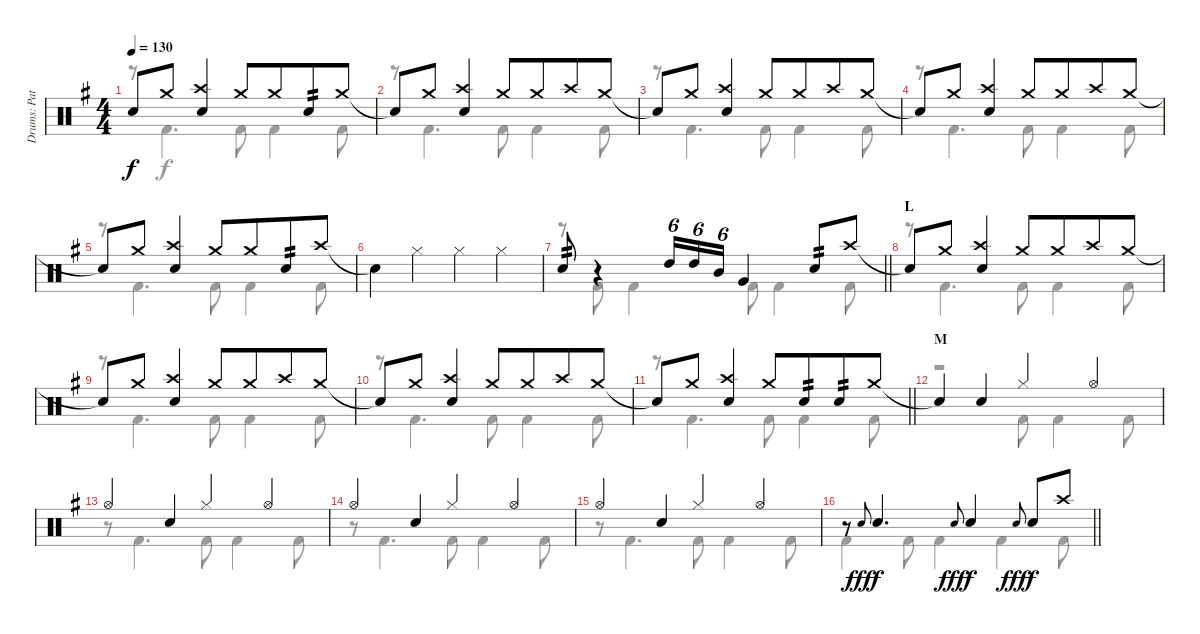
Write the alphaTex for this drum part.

\track ("Drums: Pat" "Drums: Pat") {instrument percussion}
\staff {score}
\articulation defaults
\voice
\ts (4 4)
\tempo 130
\clef neutral
\ks g "Snare (hit)"{t}.8{dy f} "Crash medium (hit)".8
("Crash high (hit)" "Snare (hit) 2").4 "Crash medium (hit)".8 "Crash medium (hit)".8{beam merge} "Snare (hit) 2".8{tp 2} "Crash medium (hit)".8 |
"Snare (hit)"{t}.8 "Crash medium (hit)".8 ("Crash high (hit)" "Snare (hit) 2").4 "Crash medium (hit)".8 "Crash medium (hit)".8{beam merge} "Crash high (hit)".8 "Crash medium (hit)".8 |
"Snare (hit)"{t}.8 "Crash medium (hit)".8 ("Crash high (hit)" "Snare (hit) 2").4 "Crash medium (hit)".8 "Crash medium (hit)".8{beam merge} "Crash high (hit)".8 "Crash medium (hit)".8 |
"Snare (hit)"{t}.8 "Crash medium (hit)".8 ("Crash high (hit)" "Snare (hit) 2").4 "Crash medium (hit)".8 "Crash medium (hit)".8{beam merge} "Crash high (hit)".8 "Crash medium (hit)".8 |
"Snare (hit)"{t}.8 "Crash medium (hit)".8 ("Crash high (hit)" "Snare (hit) 2").4 "Crash medium (hit)".8{beam merge} "Crash medium (hit)".8{beam merge} "Snare (hit) 2".8{tp 2} "Crash high (hit)".8 |
"Snare (hit)"{t}.4 "Hi-Hat (closed)".4 "Hi-Hat (closed)".4 "Hi-Hat (closed)".4 |
\barLineRight lightlight "Snare (hit) 2".8{tp 2}
r.4 "High Tom (hit)".16{tu (6 4)} "High Tom (hit)".16{tu (6 4)} "Mid Tom (hit)".16{tu (6 4)} "Very Low Tom (hit)".4 "Snare (hit) 2".8{tp 2} "Crash high (hit)".8 |
\section ("" "L")
"Snare (hit)"{t}.8 "Crash medium (hit)".8 ("Crash high (hit)" "Snare (hit) 2").4 "Crash medium (hit)".8 "Crash medium (hit)".8{beam merge} "Crash high (hit)".8 "Crash medium (hit)".8 |
"Snare (hit)"{t}.8 "Crash medium (hit)".8 ("Crash high (hit)" "Snare (hit) 2").4 "Crash medium (hit)".8 "Crash medium (hit)".8{beam merge} "Crash high (hit)".8 "Crash medium (hit)".8 |
"Snare (hit)"{t}.8 "Crash medium (hit)".8 ("Crash high (hit)" "Snare (hit) 2").4 "Crash medium (hit)".8 "Crash medium (hit)".8{beam merge} "Crash high (hit)".8 "Crash medium (hit)".8 |
\barLineRight lightlight "Snare (hit)"{t}.8 "Crash medium (hit)".8
("Crash high (hit)" "Snare (hit) 2").4 "Crash medium (hit)".8{beam merge} "Snare (hit) 2".8{tp 2 beam merge} "Snare (hit) 2".8{tp 2} "Crash medium (hit)".8 |
\section ("" "M")
"Snare (hit)"{t}.4 "Snare (hit) 2".4 "Hi-Hat (closed)".4 "Hi-Hat (open)".4 |
"Hi-Hat (open)".4 "Snare (hit) 2".4 "Hi-Hat (closed)".4 "Hi-Hat (open)".4 |
"Hi-Hat (open)".4 "Snare (hit) 2".4 "Hi-Hat (closed)".4 "Hi-Hat (open)".4 |
"Hi-Hat (open)".4 "Snare (hit) 2".4 "Hi-Hat (closed)".4 "Hi-Hat (open)".4 |
\barLineRight lightlight
r.8 "Electric Snare (hit)".8{gr onbeat dy fff} "Snare (hit) 2".4{d dy f} "Electric Snare (hit)".8{gr onbeat dy fff} "Snare (hit) 2".4{dy f} "Electric Snare (hit)".8{gr onbeat dy fff} "Snare (hit) 2".8{dy f} "Crash high (hit)".8
\voice
\clef neutral
\ottava regular
\simile none
\ks g
r.8{dy f} "Kick (hit) 2".4{d} "Kick (hit) 2".8 "Kick (hit) 2".4 "Kick (hit) 2".8 |
r.8 "Kick (hit) 2".4{d} "Kick (hit) 2".8 "Kick (hit) 2".4 "Kick (hit) 2".8 |
r.8 "Kick (hit) 2".4{d} "Kick (hit) 2".8 "Kick (hit) 2".4 "Kick (hit) 2".8 |
r.8 "Kick (hit) 2".4{d} "Kick (hit) 2".8 "Kick (hit) 2".4 "Kick (hit) 2".8 |
r.8 "Kick (hit) 2".4{d} "Kick (hit) 2".8 "Kick (hit) 2".4 "Kick (hit) 2".8 |
|
\barLineRight lightlight
r.8 "Kick (hit) 2".8 "Kick (hit) 2".4 "Kick (hit) 2".8 "Kick (hit) 2".4 "Kick (hit) 2".8 |
r.8 "Kick (hit) 2".4{d} "Kick (hit) 2".8 "Kick (hit) 2".4 "Kick (hit) 2".8 |
r.8 "Kick (hit) 2".4{d} "Kick (hit) 2".8 "Kick (hit) 2".4 "Kick (hit) 2".8 |
r.8 "Kick (hit) 2".4{d} "Kick (hit) 2".8 "Kick (hit) 2".4 "Kick (hit) 2".8 |
\barLineRight lightlight
r.8 "Kick (hit) 2".4{d} "Kick (hit) 2".8 "Kick (hit) 2".4 "Kick (hit) 2".8 |
r.2 "Kick (hit) 2".8 "Kick (hit) 2".4 "Kick (hit) 2".8 |
r.8 "Kick (hit) 2".4{d} "Kick (hit) 2".8 "Kick (hit) 2".4 "Kick (hit) 2".8 |
r.8 "Kick (hit) 2".4{d} "Kick (hit) 2".8 "Kick (hit) 2".4 "Kick (hit) 2".8 |
r.8 "Kick (hit) 2".4{d} "Kick (hit) 2".8 "Kick (hit) 2".4 "Kick (hit) 2".8 |
\barLineRight lightlight "Kick (hit) 2".4 "Kick (hit) 2".8 "Kick (hit) 2".4 "Kick (hit) 2".4 "Kick (hit) 2".8
